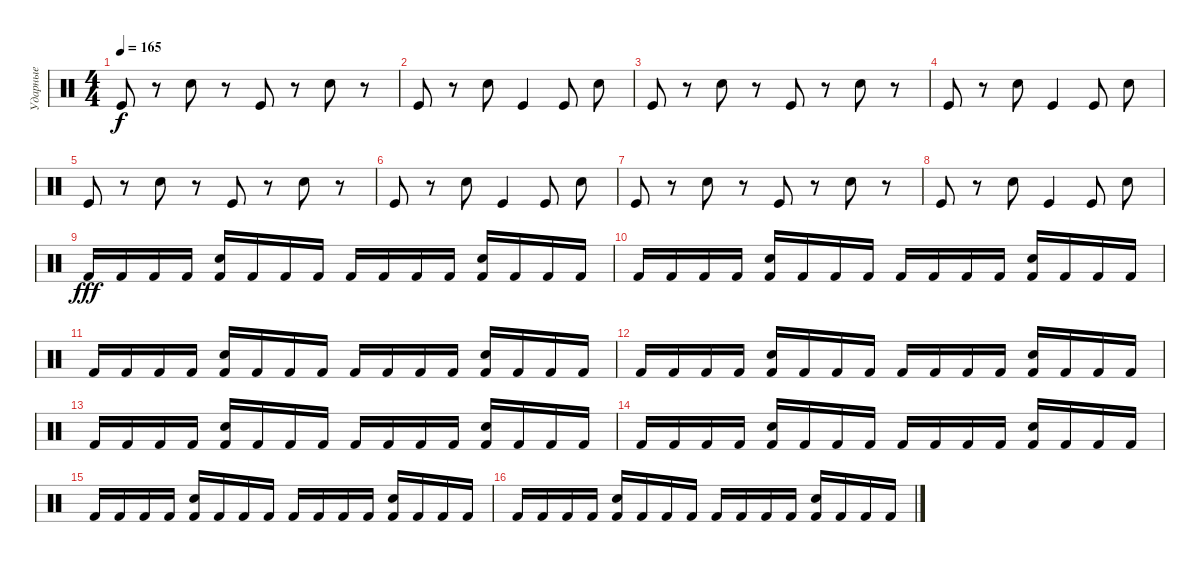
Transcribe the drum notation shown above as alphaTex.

\track ("Ударные" "Ударные") {instrument percussion}
\staff {score}
\articulation defaults
\ts (4 4)
\tempo 165
\clef neutral
\ks c "Kick (hit)".8{dy f}
r.8 "Snare (hit) 2".8 r.8 "Kick (hit)".8 r.8 "Snare (hit) 2".8 r.8 |
"Kick (hit)".8 r.8 "Snare (hit) 2".8 "Kick (hit)".4 "Kick (hit)".8 "Snare (hit) 2".8 |
"Kick (hit)".8 r.8 "Snare (hit) 2".8 r.8 "Kick (hit)".8 r.8 "Snare (hit) 2".8 r.8 |
"Kick (hit)".8 r.8 "Snare (hit) 2".8 "Kick (hit)".4 "Kick (hit)".8 "Snare (hit) 2".8 |
"Kick (hit)".8 r.8 "Snare (hit) 2".8 r.8 "Kick (hit)".8 r.8 "Snare (hit) 2".8 r.8 |
"Kick (hit)".8 r.8 "Snare (hit) 2".8 "Kick (hit)".4 "Kick (hit)".8 "Snare (hit) 2".8 |
"Kick (hit)".8 r.8 "Snare (hit) 2".8 r.8 "Kick (hit)".8 r.8 "Snare (hit) 2".8 r.8 |
"Kick (hit)".8 r.8 "Snare (hit) 2".8 "Kick (hit)".4 "Kick (hit)".8 "Snare (hit) 2".8 |
"Kick (hit) 2".16{dy fff} "Kick (hit) 2".16 "Kick (hit) 2".16 "Kick (hit) 2".16 ("Electric Snare (hit)" "Kick (hit) 2").16 "Kick (hit) 2".16 "Kick (hit) 2".16 "Kick (hit) 2".16 "Kick (hit) 2".16 "Kick (hit) 2".16 "Kick (hit) 2".16 "Kick (hit) 2".16 ("Electric Snare (hit)" "Kick (hit) 2").16 "Kick (hit) 2".16 "Kick (hit) 2".16 "Kick (hit) 2".16 |
"Kick (hit) 2".16 "Kick (hit) 2".16 "Kick (hit) 2".16 "Kick (hit) 2".16 ("Electric Snare (hit)" "Kick (hit) 2").16 "Kick (hit) 2".16 "Kick (hit) 2".16 "Kick (hit) 2".16 "Kick (hit) 2".16 "Kick (hit) 2".16 "Kick (hit) 2".16 "Kick (hit) 2".16 ("Electric Snare (hit)" "Kick (hit) 2").16 "Kick (hit) 2".16 "Kick (hit) 2".16 "Kick (hit) 2".16 |
"Kick (hit) 2".16 "Kick (hit) 2".16 "Kick (hit) 2".16 "Kick (hit) 2".16 ("Electric Snare (hit)" "Kick (hit) 2").16 "Kick (hit) 2".16 "Kick (hit) 2".16 "Kick (hit) 2".16 "Kick (hit) 2".16 "Kick (hit) 2".16 "Kick (hit) 2".16 "Kick (hit) 2".16 ("Electric Snare (hit)" "Kick (hit) 2").16 "Kick (hit) 2".16 "Kick (hit) 2".16 "Kick (hit) 2".16 |
"Kick (hit) 2".16 "Kick (hit) 2".16 "Kick (hit) 2".16 "Kick (hit) 2".16 ("Electric Snare (hit)" "Kick (hit) 2").16 "Kick (hit) 2".16 "Kick (hit) 2".16 "Kick (hit) 2".16 "Kick (hit) 2".16 "Kick (hit) 2".16 "Kick (hit) 2".16 "Kick (hit) 2".16 ("Electric Snare (hit)" "Kick (hit) 2").16 "Kick (hit) 2".16 "Kick (hit) 2".16 "Kick (hit) 2".16 |
"Kick (hit) 2".16 "Kick (hit) 2".16 "Kick (hit) 2".16 "Kick (hit) 2".16 ("Electric Snare (hit)" "Kick (hit) 2").16 "Kick (hit) 2".16 "Kick (hit) 2".16 "Kick (hit) 2".16 "Kick (hit) 2".16 "Kick (hit) 2".16 "Kick (hit) 2".16 "Kick (hit) 2".16 ("Electric Snare (hit)" "Kick (hit) 2").16 "Kick (hit) 2".16 "Kick (hit) 2".16 "Kick (hit) 2".16 |
"Kick (hit) 2".16 "Kick (hit) 2".16 "Kick (hit) 2".16 "Kick (hit) 2".16 ("Electric Snare (hit)" "Kick (hit) 2").16 "Kick (hit) 2".16 "Kick (hit) 2".16 "Kick (hit) 2".16 "Kick (hit) 2".16 "Kick (hit) 2".16 "Kick (hit) 2".16 "Kick (hit) 2".16 ("Electric Snare (hit)" "Kick (hit) 2").16 "Kick (hit) 2".16 "Kick (hit) 2".16 "Kick (hit) 2".16 |
"Kick (hit) 2".16 "Kick (hit) 2".16 "Kick (hit) 2".16 "Kick (hit) 2".16 ("Electric Snare (hit)" "Kick (hit) 2").16 "Kick (hit) 2".16 "Kick (hit) 2".16 "Kick (hit) 2".16 "Kick (hit) 2".16 "Kick (hit) 2".16 "Kick (hit) 2".16 "Kick (hit) 2".16 ("Electric Snare (hit)" "Kick (hit) 2").16 "Kick (hit) 2".16 "Kick (hit) 2".16 "Kick (hit) 2".16 |
"Kick (hit) 2".16 "Kick (hit) 2".16 "Kick (hit) 2".16 "Kick (hit) 2".16 ("Electric Snare (hit)" "Kick (hit) 2").16 "Kick (hit) 2".16 "Kick (hit) 2".16 "Kick (hit) 2".16 "Kick (hit) 2".16 "Kick (hit) 2".16 "Kick (hit) 2".16 "Kick (hit) 2".16 ("Electric Snare (hit)" "Kick (hit) 2").16 "Kick (hit) 2".16 "Kick (hit) 2".16 "Kick (hit) 2".16
